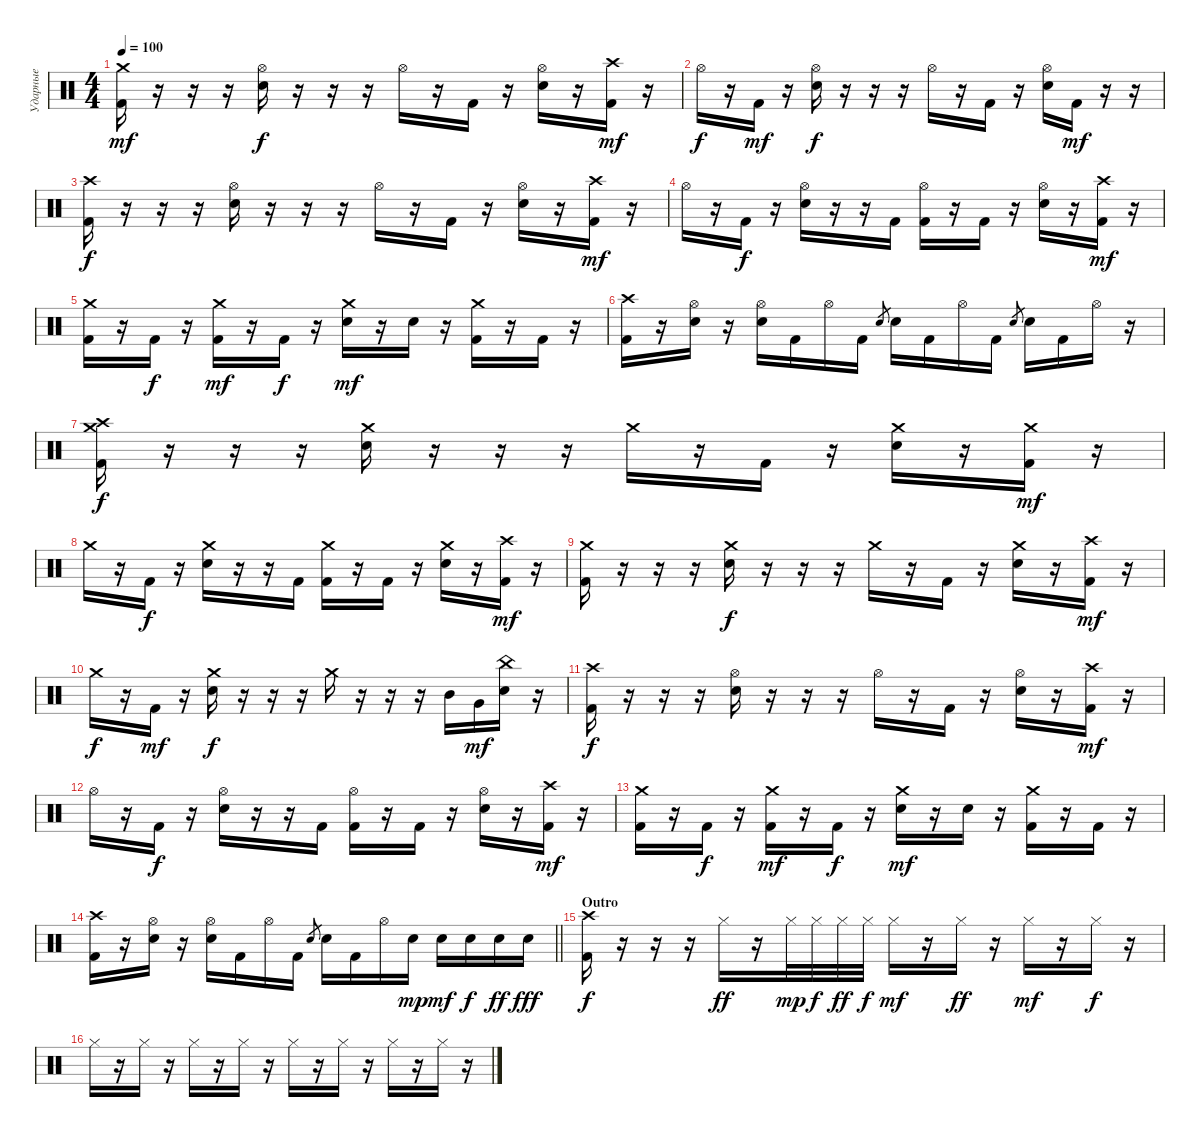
\track ("Ударные" "Ударные") {instrument percussion}
\staff {score}
\articulation defaults
\ts (4 4)
\tempo 100
\clef neutral
\ks c
("Crash medium (hit)" "Kick (hit) 2").16{dy mf} r.16 r.16 r.16 ("Hi-Hat (open)" "Electric Snare (hit)").16{dy f} r.16 r.16 r.16 "Hi-Hat (open)".16 r.16 "Kick (hit) 2".16 r.16 ("Hi-Hat (open)" "Electric Snare (hit)").16 r.16 ("Crash high (hit)" "Kick (hit) 2").16{dy mf} r.16 |
"Hi-Hat (open)".16{dy f} r.16 "Kick (hit) 2".16{dy mf} r.16 ("Hi-Hat (open)" "Electric Snare (hit)").16{dy f} r.16 r.16 r.16 "Hi-Hat (open)".16 r.16 "Kick (hit) 2".16 r.16 ("Hi-Hat (open)" "Electric Snare (hit)").16 "Kick (hit) 2".16{dy mf} r.16 r.16 |
("Crash high (hit)" "Kick (hit) 2").16{dy f} r.16 r.16 r.16 ("Hi-Hat (open)" "Electric Snare (hit)").16 r.16 r.16 r.16 "Hi-Hat (open)".16 r.16 "Kick (hit) 2".16 r.16 ("Hi-Hat (open)" "Electric Snare (hit)").16 r.16 ("Crash high (hit)" "Kick (hit) 2").16{dy mf} r.16 |
"Hi-Hat (open)".16 r.16 "Kick (hit) 2".16{dy f} r.16 ("Hi-Hat (open)" "Electric Snare (hit)").16 r.16 r.16 "Kick (hit) 2".16 ("Hi-Hat (open)" "Kick (hit) 2").16 r.16 "Kick (hit) 2".16 r.16 ("Hi-Hat (open)" "Electric Snare (hit)").16 r.16 ("Crash high (hit)" "Kick (hit) 2").16{dy mf} r.16 |
("Crash medium (hit)" "Kick (hit) 2").16 r.16 "Kick (hit) 2".16{dy f} r.16 ("Crash medium (hit)" "Kick (hit) 2").16{dy mf} r.16 "Kick (hit) 2".16{dy f} r.16 ("Crash medium (hit)" "Electric Snare (hit)").16{dy mf} r.16 "Electric Snare (hit)".16 r.16 ("Crash medium (hit)" "Kick (hit) 2").16 r.16 "Kick (hit) 2".16 r.16 |
("Crash high (hit)" "Kick (hit) 2").16 r.16 ("Hi-Hat (open)" "Electric Snare (hit)").16 r.16 ("Hi-Hat (open)" "Electric Snare (hit)").16 "Kick (hit) 2".16 "Hi-Hat (open)".16 "Kick (hit) 2".16 "Electric Snare (hit)".8{gr} "Electric Snare (hit)".16 "Kick (hit) 2".16 "Hi-Hat (open)".16 "Kick (hit) 2".16 "Electric Snare (hit)".8{gr} "Electric Snare (hit)".16 "Kick (hit) 2".16 "Hi-Hat (open)".16 r.16 |
("Crash medium (hit)" "Crash high (hit)" "Kick (hit) 2").16{dy f} r.16 r.16 r.16 ("Crash medium (hit)" "Electric Snare (hit)").16 r.16 r.16 r.16 "Crash medium (hit)".16 r.16 "Kick (hit) 2".16 r.16 ("Crash medium (hit)" "Electric Snare (hit)").16 r.16 ("Crash medium (hit)" "Kick (hit) 2").16{dy mf} r.16 |
"Crash medium (hit)".16 r.16 "Kick (hit) 2".16{dy f} r.16 ("Crash medium (hit)" "Electric Snare (hit)").16 r.16 r.16 "Kick (hit) 2".16 ("Crash medium (hit)" "Kick (hit) 2").16 r.16 "Kick (hit) 2".16 r.16 ("Crash medium (hit)" "Electric Snare (hit)").16 r.16 ("Crash high (hit)" "Kick (hit) 2").16{dy mf} r.16 |
("Crash medium (hit)" "Kick (hit) 2").16 r.16 r.16 r.16 ("Crash medium (hit)" "Electric Snare (hit)").16{dy f} r.16 r.16 r.16 "Crash medium (hit)".16 r.16 "Kick (hit) 2".16 r.16 ("Crash medium (hit)" "Electric Snare (hit)").16 r.16 ("Crash high (hit)" "Kick (hit) 2").16{dy mf} r.16 |
"Crash medium (hit)".16{dy f} r.16 "Kick (hit) 2".16{dy mf} r.16 ("Crash medium (hit)" "Electric Snare (hit)").16{dy f} r.16 r.16 r.16 "Crash medium (hit)".16 r.16 r.16 r.16 "Mid Tom (hit)".16 "Very Low Tom (hit)".16{dy mf} ("China (hit)" "Electric Snare (hit)").16 r.16 |
("Crash high (hit)" "Kick (hit) 2").16{dy f} r.16 r.16 r.16 ("Hi-Hat (open)" "Electric Snare (hit)").16 r.16 r.16 r.16 "Hi-Hat (open)".16 r.16 "Kick (hit) 2".16 r.16 ("Hi-Hat (open)" "Electric Snare (hit)").16 r.16 ("Crash high (hit)" "Kick (hit) 2").16{dy mf} r.16 |
"Hi-Hat (open)".16 r.16 "Kick (hit) 2".16{dy f} r.16 ("Hi-Hat (open)" "Electric Snare (hit)").16 r.16 r.16 "Kick (hit) 2".16 ("Hi-Hat (open)" "Kick (hit) 2").16 r.16 "Kick (hit) 2".16 r.16 ("Hi-Hat (open)" "Electric Snare (hit)").16 r.16 ("Crash high (hit)" "Kick (hit) 2").16{dy mf} r.16 |
("Crash medium (hit)" "Kick (hit) 2").16 r.16 "Kick (hit) 2".16{dy f} r.16 ("Crash medium (hit)" "Kick (hit) 2").16{dy mf} r.16 "Kick (hit) 2".16{dy f} r.16 ("Crash medium (hit)" "Electric Snare (hit)").16{dy mf} r.16 "Electric Snare (hit)".16 r.16 ("Crash medium (hit)" "Kick (hit) 2").16 r.16 "Kick (hit) 2".16 r.16 |
\barLineRight lightlight
("Crash high (hit)" "Kick (hit) 2").16 r.16 ("Hi-Hat (open)" "Electric Snare (hit)").16 r.16 ("Hi-Hat (open)" "Electric Snare (hit)").16 "Kick (hit) 2".16 "Hi-Hat (open)".16 "Kick (hit) 2".16 "Electric Snare (hit)".8{gr} "Electric Snare (hit)".16 "Kick (hit) 2".16 "Hi-Hat (open)".16 "Electric Snare (hit)".16{dy mp} "Electric Snare (hit)".16{dy mf} "Electric Snare (hit)".16{dy f} "Electric Snare (hit)".16{dy ff} "Electric Snare (hit)".16{dy fff} |
\section ("" "Outro")
("Crash high (hit)" "Kick (hit) 2").16{dy f} r.16 r.16 r.16 "Hi-Hat (closed)".16{dy ff} r.16 "Hi-Hat (closed)".32{dy mp} "Hi-Hat (closed)".32{dy f} "Hi-Hat (closed)".32{dy ff} "Hi-Hat (closed)".32{dy f} "Hi-Hat (closed)".16{dy mf} r.16 "Hi-Hat (closed)".16{dy ff} r.16 "Hi-Hat (closed)".16{dy mf} r.16 "Hi-Hat (closed)".16{dy f} r.16 |
"Hi-Hat (closed)".16 r.16 "Hi-Hat (closed)".16 r.16 "Hi-Hat (closed)".16 r.16 "Hi-Hat (closed)".16 r.16 "Hi-Hat (closed)".16 r.16 "Hi-Hat (closed)".16 r.16 "Hi-Hat (closed)".16 r.16 "Hi-Hat (closed)".16 r.16
